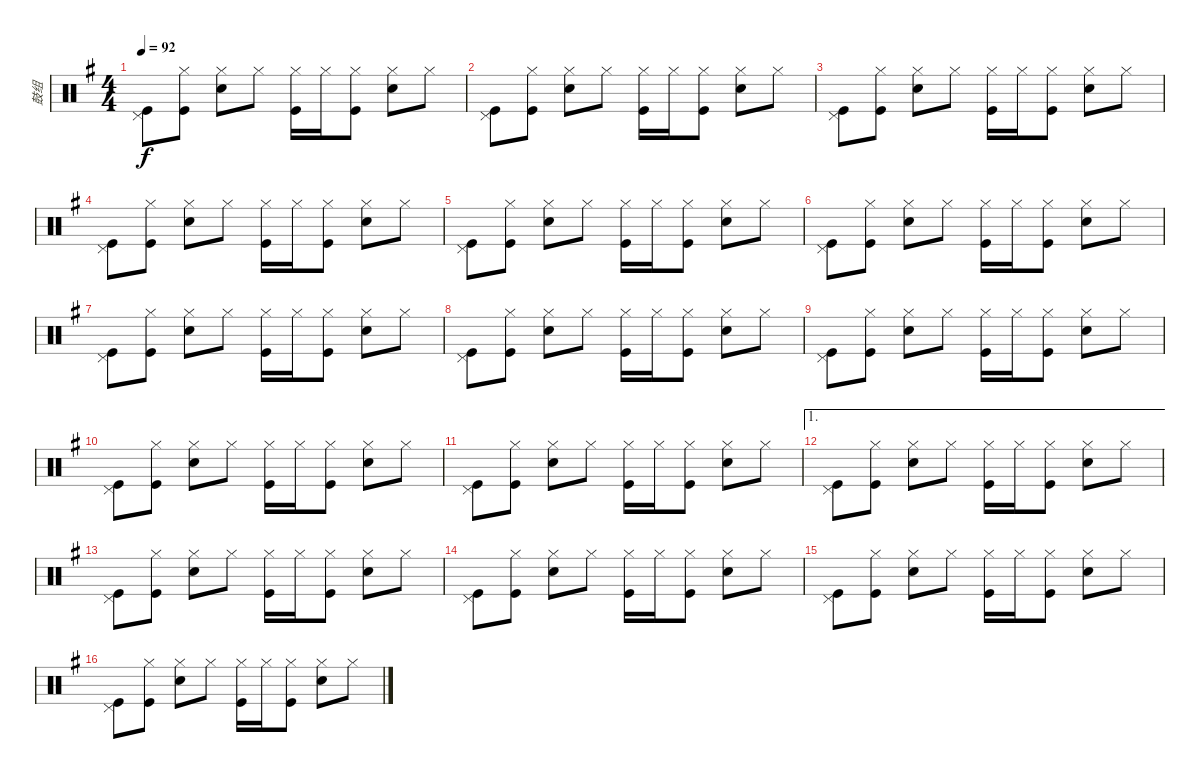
\track ("鼓组" "鼓组") {instrument percussion}
\staff {score}
\articulation defaults
\ts (4 4)
\tempo 92
\clef neutral
\ks g
("Pedal Hi-Hat (hit)" "Kick (hit)").8{dy f} ("Hi-Hat (closed)" "Kick (hit)").8 ("Hi-Hat (closed)" "Snare (hit) 2").8 "Hi-Hat (closed)".8 ("Hi-Hat (closed)" "Kick (hit)").16 "Hi-Hat (closed)".16 ("Hi-Hat (closed)" "Kick (hit)").8 ("Hi-Hat (closed)" "Snare (hit) 2").8 "Hi-Hat (closed)".8 |
("Pedal Hi-Hat (hit)" "Kick (hit)").8 ("Hi-Hat (closed)" "Kick (hit)").8 ("Hi-Hat (closed)" "Snare (hit) 2").8 "Hi-Hat (closed)".8 ("Hi-Hat (closed)" "Kick (hit)").16 "Hi-Hat (closed)".16 ("Hi-Hat (closed)" "Kick (hit)").8 ("Hi-Hat (closed)" "Snare (hit) 2").8 "Hi-Hat (closed)".8 |
("Pedal Hi-Hat (hit)" "Kick (hit)").8 ("Hi-Hat (closed)" "Kick (hit)").8 ("Hi-Hat (closed)" "Snare (hit) 2").8 "Hi-Hat (closed)".8 ("Hi-Hat (closed)" "Kick (hit)").16 "Hi-Hat (closed)".16 ("Hi-Hat (closed)" "Kick (hit)").8 ("Hi-Hat (closed)" "Snare (hit) 2").8 "Hi-Hat (closed)".8 |
("Pedal Hi-Hat (hit)" "Kick (hit)").8 ("Hi-Hat (closed)" "Kick (hit)").8 ("Hi-Hat (closed)" "Snare (hit) 2").8 "Hi-Hat (closed)".8 ("Hi-Hat (closed)" "Kick (hit)").16 "Hi-Hat (closed)".16 ("Hi-Hat (closed)" "Kick (hit)").8 ("Hi-Hat (closed)" "Snare (hit) 2").8 "Hi-Hat (closed)".8 |
("Pedal Hi-Hat (hit)" "Kick (hit)").8 ("Hi-Hat (closed)" "Kick (hit)").8 ("Hi-Hat (closed)" "Snare (hit) 2").8 "Hi-Hat (closed)".8 ("Hi-Hat (closed)" "Kick (hit)").16 "Hi-Hat (closed)".16 ("Hi-Hat (closed)" "Kick (hit)").8 ("Hi-Hat (closed)" "Snare (hit) 2").8 "Hi-Hat (closed)".8 |
("Pedal Hi-Hat (hit)" "Kick (hit)").8 ("Hi-Hat (closed)" "Kick (hit)").8 ("Hi-Hat (closed)" "Snare (hit) 2").8 "Hi-Hat (closed)".8 ("Hi-Hat (closed)" "Kick (hit)").16 "Hi-Hat (closed)".16 ("Hi-Hat (closed)" "Kick (hit)").8 ("Hi-Hat (closed)" "Snare (hit) 2").8 "Hi-Hat (closed)".8 |
("Pedal Hi-Hat (hit)" "Kick (hit)").8 ("Hi-Hat (closed)" "Kick (hit)").8 ("Hi-Hat (closed)" "Snare (hit) 2").8 "Hi-Hat (closed)".8 ("Hi-Hat (closed)" "Kick (hit)").16 "Hi-Hat (closed)".16 ("Hi-Hat (closed)" "Kick (hit)").8 ("Hi-Hat (closed)" "Snare (hit) 2").8 "Hi-Hat (closed)".8 |
("Pedal Hi-Hat (hit)" "Kick (hit)").8 ("Hi-Hat (closed)" "Kick (hit)").8 ("Hi-Hat (closed)" "Snare (hit) 2").8 "Hi-Hat (closed)".8 ("Hi-Hat (closed)" "Kick (hit)").16 "Hi-Hat (closed)".16 ("Hi-Hat (closed)" "Kick (hit)").8 ("Hi-Hat (closed)" "Snare (hit) 2").8 "Hi-Hat (closed)".8 |
("Pedal Hi-Hat (hit)" "Kick (hit)").8 ("Hi-Hat (closed)" "Kick (hit)").8 ("Hi-Hat (closed)" "Snare (hit) 2").8 "Hi-Hat (closed)".8 ("Hi-Hat (closed)" "Kick (hit)").16 "Hi-Hat (closed)".16 ("Hi-Hat (closed)" "Kick (hit)").8 ("Hi-Hat (closed)" "Snare (hit) 2").8 "Hi-Hat (closed)".8 |
("Pedal Hi-Hat (hit)" "Kick (hit)").8 ("Hi-Hat (closed)" "Kick (hit)").8 ("Hi-Hat (closed)" "Snare (hit) 2").8 "Hi-Hat (closed)".8 ("Hi-Hat (closed)" "Kick (hit)").16 "Hi-Hat (closed)".16 ("Hi-Hat (closed)" "Kick (hit)").8 ("Hi-Hat (closed)" "Snare (hit) 2").8 "Hi-Hat (closed)".8 |
("Pedal Hi-Hat (hit)" "Kick (hit)").8 ("Hi-Hat (closed)" "Kick (hit)").8 ("Hi-Hat (closed)" "Snare (hit) 2").8 "Hi-Hat (closed)".8 ("Hi-Hat (closed)" "Kick (hit)").16 "Hi-Hat (closed)".16 ("Hi-Hat (closed)" "Kick (hit)").8 ("Hi-Hat (closed)" "Snare (hit) 2").8 "Hi-Hat (closed)".8 |
\ae 1
("Pedal Hi-Hat (hit)" "Kick (hit)").8 ("Hi-Hat (closed)" "Kick (hit)").8 ("Hi-Hat (closed)" "Snare (hit) 2").8 "Hi-Hat (closed)".8 ("Hi-Hat (closed)" "Kick (hit)").16 "Hi-Hat (closed)".16 ("Hi-Hat (closed)" "Kick (hit)").8 ("Hi-Hat (closed)" "Snare (hit) 2").8 "Hi-Hat (closed)".8 |
("Pedal Hi-Hat (hit)" "Kick (hit)").8 ("Hi-Hat (closed)" "Kick (hit)").8 ("Hi-Hat (closed)" "Snare (hit) 2").8 "Hi-Hat (closed)".8 ("Hi-Hat (closed)" "Kick (hit)").16 "Hi-Hat (closed)".16 ("Hi-Hat (closed)" "Kick (hit)").8 ("Hi-Hat (closed)" "Snare (hit) 2").8 "Hi-Hat (closed)".8 |
("Pedal Hi-Hat (hit)" "Kick (hit)").8 ("Hi-Hat (closed)" "Kick (hit)").8 ("Hi-Hat (closed)" "Snare (hit) 2").8 "Hi-Hat (closed)".8 ("Hi-Hat (closed)" "Kick (hit)").16 "Hi-Hat (closed)".16 ("Hi-Hat (closed)" "Kick (hit)").8 ("Hi-Hat (closed)" "Snare (hit) 2").8 "Hi-Hat (closed)".8 |
("Pedal Hi-Hat (hit)" "Kick (hit)").8 ("Hi-Hat (closed)" "Kick (hit)").8 ("Hi-Hat (closed)" "Snare (hit) 2").8 "Hi-Hat (closed)".8 ("Hi-Hat (closed)" "Kick (hit)").16 "Hi-Hat (closed)".16 ("Hi-Hat (closed)" "Kick (hit)").8 ("Hi-Hat (closed)" "Snare (hit) 2").8 "Hi-Hat (closed)".8 |
("Pedal Hi-Hat (hit)" "Kick (hit)").8 ("Hi-Hat (closed)" "Kick (hit)").8 ("Hi-Hat (closed)" "Snare (hit) 2").8 "Hi-Hat (closed)".8 ("Hi-Hat (closed)" "Kick (hit)").16 "Hi-Hat (closed)".16 ("Hi-Hat (closed)" "Kick (hit)").8 ("Hi-Hat (closed)" "Snare (hit) 2").8 "Hi-Hat (closed)".8
